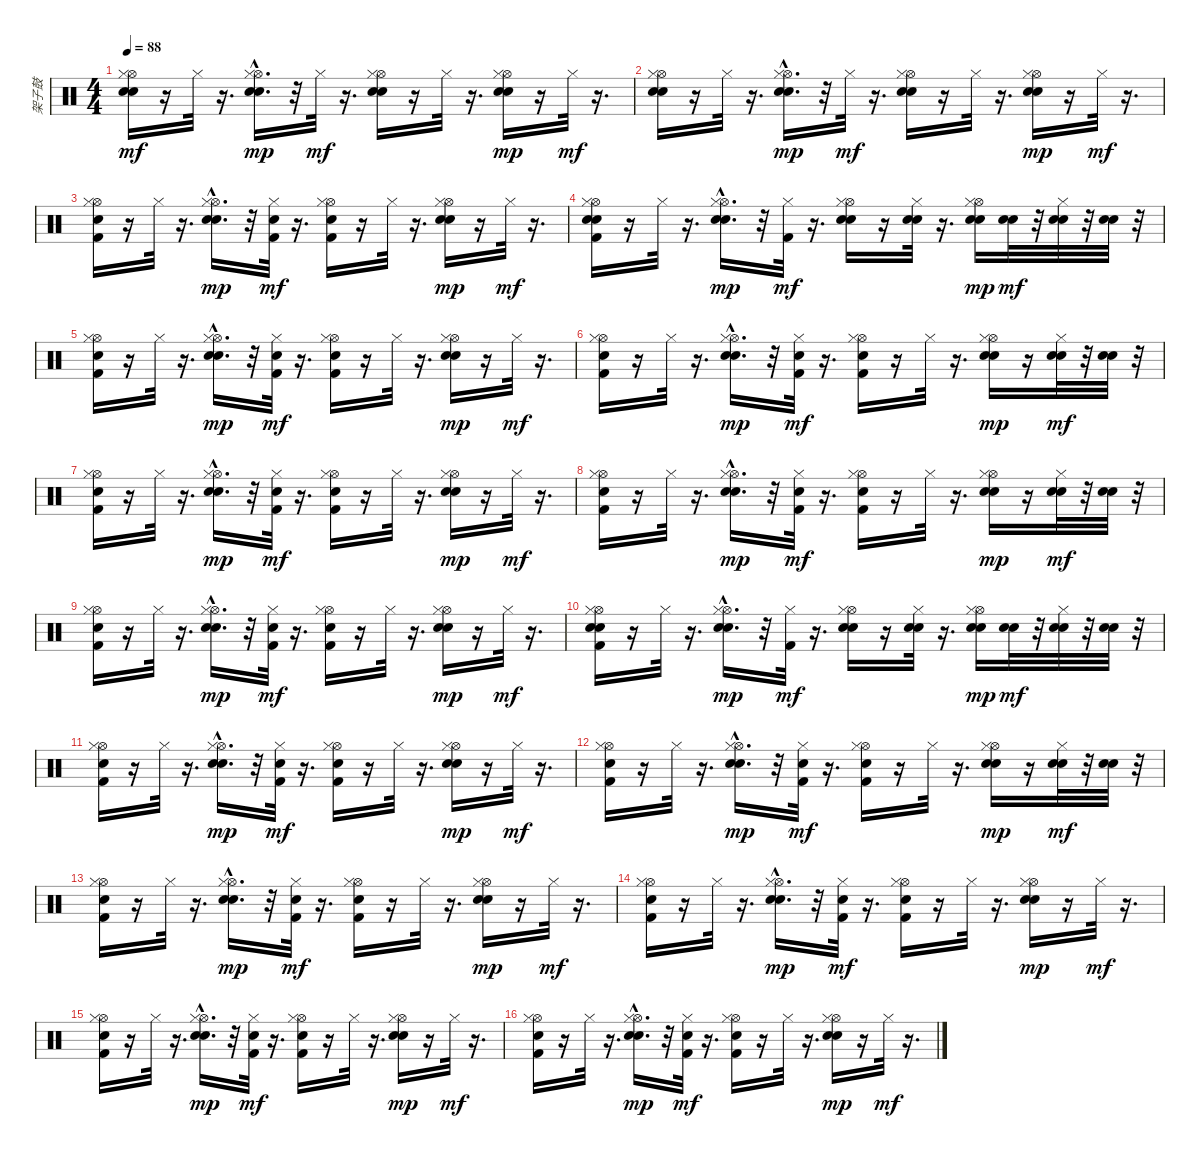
\track ("架子鼓" "架子鼓") {instrument percussion}
\staff {score}
\articulation defaults
\ts (4 4)
\tempo 88
\clef neutral
\ks c
("Hi-Hat (open)" "Hi-Hat (closed)" "Electric Snare (hit)" "Electric Snare (hit)").16{dy mf} r.16 "Hi-Hat (closed)".32 r.16{d} ("Hi-Hat (open)"{hac} "Hi-Hat (closed)" "Electric Snare (hit)" "Metronome (bell)").16{d dy mp} r.32 "Hi-Hat (closed)".32{dy mf} r.16{d} ("Hi-Hat (open)" "Hi-Hat (closed)" "Electric Snare (hit)" "Electric Snare (hit)").16 r.16 "Hi-Hat (closed)".32 r.16{d} ("Hi-Hat (open)" "Hi-Hat (closed)" "Electric Snare (hit)" "Metronome (bell)").16{dy mp} r.16 "Hi-Hat (closed)".32{dy mf} r.16{d} |
("Hi-Hat (open)" "Hi-Hat (closed)" "Electric Snare (hit)" "Electric Snare (hit)").16 r.16 "Hi-Hat (closed)".32 r.16{d} ("Hi-Hat (open)"{hac} "Hi-Hat (closed)" "Electric Snare (hit)" "Metronome (bell)").16{d dy mp} r.32 "Hi-Hat (closed)".32{dy mf} r.16{d} ("Hi-Hat (open)" "Hi-Hat (closed)" "Electric Snare (hit)" "Electric Snare (hit)").16 r.16 "Hi-Hat (closed)".32 r.16{d} ("Hi-Hat (open)" "Hi-Hat (closed)" "Electric Snare (hit)" "Metronome (bell)").16{dy mp} r.16 "Hi-Hat (closed)".32{dy mf} r.16{d} |
("Hi-Hat (open)" "Hi-Hat (closed)" "Kick (hit) 2" "Snare (hit)").16 r.16 "Hi-Hat (closed)".32 r.16{d} ("Hi-Hat (open)"{hac} "Hi-Hat (closed)" "Electric Snare (hit)" "Metronome (bell)").16{d dy mp} r.32 ("Hi-Hat (closed)" "Kick (hit) 2" "Snare (hit)").32{dy mf} r.16{d} ("Hi-Hat (open)" "Hi-Hat (closed)" "Kick (hit) 2" "Snare (hit)").16 r.16 "Hi-Hat (closed)".32 r.16{d} ("Hi-Hat (open)" "Hi-Hat (closed)" "Electric Snare (hit)" "Metronome (bell)").16{dy mp} r.16 "Hi-Hat (closed)".32{dy mf} r.16{d} |
("Hi-Hat (open)" "Hi-Hat (closed)" "Electric Snare (hit)" "Electric Snare (hit)" "Kick (hit) 2").16 r.16 "Hi-Hat (closed)".32 r.16{d} ("Hi-Hat (open)"{hac} "Hi-Hat (closed)" "Electric Snare (hit)" "Metronome (bell)").16{d dy mp} r.32 ("Hi-Hat (closed)" "Kick (hit) 2").32{dy mf} r.16{d} ("Hi-Hat (open)" "Hi-Hat (closed)" "Electric Snare (hit)" "Metronome (bell)").16 r.16 ("Hi-Hat (closed)" "Electric Snare (hit)" "Metronome (bell)").32 r.16{d} ("Hi-Hat (open)" "Hi-Hat (closed)" "Electric Snare (hit)" "Metronome (bell)").16{dy mp} ("Electric Snare (hit)" "Metronome (bell)").32{dy mf} r.32 ("Hi-Hat (closed)" "Electric Snare (hit)" "Metronome (bell)").32 r.32 ("Electric Snare (hit)" "Metronome (bell)").32 r.32 |
("Hi-Hat (open)" "Hi-Hat (closed)" "Kick (hit) 2" "Snare (hit)").16 r.16 "Hi-Hat (closed)".32 r.16{d} ("Hi-Hat (open)"{hac} "Hi-Hat (closed)" "Electric Snare (hit)" "Metronome (bell)").16{d dy mp} r.32 ("Hi-Hat (closed)" "Kick (hit) 2" "Snare (hit)").32{dy mf} r.16{d} ("Hi-Hat (open)" "Hi-Hat (closed)" "Kick (hit) 2" "Snare (hit)").16 r.16 "Hi-Hat (closed)".32 r.16{d} ("Hi-Hat (open)" "Hi-Hat (closed)" "Electric Snare (hit)" "Metronome (bell)").16{dy mp} r.16 "Hi-Hat (closed)".32{dy mf} r.16{d} |
("Hi-Hat (open)" "Hi-Hat (closed)" "Kick (hit) 2" "Snare (hit)").16 r.16 "Hi-Hat (closed)".32 r.16{d} ("Hi-Hat (open)"{hac} "Hi-Hat (closed)" "Electric Snare (hit)" "Metronome (bell)").16{d dy mp} r.32 ("Hi-Hat (closed)" "Kick (hit) 2" "Snare (hit)").32{dy mf} r.16{d} ("Hi-Hat (open)" "Hi-Hat (closed)" "Kick (hit) 2" "Snare (hit)").16 r.16 "Hi-Hat (closed)".32 r.16{d} ("Hi-Hat (open)" "Hi-Hat (closed)" "Electric Snare (hit)" "Metronome (bell)").16{dy mp} r.16 ("Hi-Hat (closed)" "Electric Snare (hit)" "Metronome (bell)").32{dy mf} r.32 ("Electric Snare (hit)" "Metronome (bell)").32 r.32 |
("Hi-Hat (open)" "Hi-Hat (closed)" "Kick (hit) 2" "Snare (hit)").16 r.16 "Hi-Hat (closed)".32 r.16{d} ("Hi-Hat (open)"{hac} "Hi-Hat (closed)" "Electric Snare (hit)" "Metronome (bell)").16{d dy mp} r.32 ("Hi-Hat (closed)" "Kick (hit) 2" "Snare (hit)").32{dy mf} r.16{d} ("Hi-Hat (open)" "Hi-Hat (closed)" "Kick (hit) 2" "Snare (hit)").16 r.16 "Hi-Hat (closed)".32 r.16{d} ("Hi-Hat (open)" "Hi-Hat (closed)" "Electric Snare (hit)" "Metronome (bell)").16{dy mp} r.16 "Hi-Hat (closed)".32{dy mf} r.16{d} |
("Hi-Hat (open)" "Hi-Hat (closed)" "Kick (hit) 2" "Snare (hit)").16 r.16 "Hi-Hat (closed)".32 r.16{d} ("Hi-Hat (open)"{hac} "Hi-Hat (closed)" "Electric Snare (hit)" "Metronome (bell)").16{d dy mp} r.32 ("Hi-Hat (closed)" "Kick (hit) 2" "Snare (hit)").32{dy mf} r.16{d} ("Hi-Hat (open)" "Hi-Hat (closed)" "Kick (hit) 2" "Snare (hit)").16 r.16 "Hi-Hat (closed)".32 r.16{d} ("Hi-Hat (open)" "Hi-Hat (closed)" "Electric Snare (hit)" "Metronome (bell)").16{dy mp} r.16 ("Hi-Hat (closed)" "Electric Snare (hit)" "Metronome (bell)").32{dy mf} r.32 ("Electric Snare (hit)" "Metronome (bell)").32 r.32 |
("Hi-Hat (open)" "Hi-Hat (closed)" "Kick (hit) 2" "Snare (hit)").16 r.16 "Hi-Hat (closed)".32 r.16{d} ("Hi-Hat (open)"{hac} "Hi-Hat (closed)" "Electric Snare (hit)" "Metronome (bell)").16{d dy mp} r.32 ("Hi-Hat (closed)" "Kick (hit) 2" "Snare (hit)").32{dy mf} r.16{d} ("Hi-Hat (open)" "Hi-Hat (closed)" "Kick (hit) 2" "Snare (hit)").16 r.16 "Hi-Hat (closed)".32 r.16{d} ("Hi-Hat (open)" "Hi-Hat (closed)" "Electric Snare (hit)" "Metronome (bell)").16{dy mp} r.16 "Hi-Hat (closed)".32{dy mf} r.16{d} |
("Hi-Hat (open)" "Hi-Hat (closed)" "Electric Snare (hit)" "Electric Snare (hit)" "Kick (hit) 2").16 r.16 "Hi-Hat (closed)".32 r.16{d} ("Hi-Hat (open)"{hac} "Hi-Hat (closed)" "Electric Snare (hit)" "Metronome (bell)").16{d dy mp} r.32 ("Hi-Hat (closed)" "Kick (hit) 2").32{dy mf} r.16{d} ("Hi-Hat (open)" "Hi-Hat (closed)" "Electric Snare (hit)" "Metronome (bell)").16 r.16 ("Hi-Hat (closed)" "Electric Snare (hit)" "Metronome (bell)").32 r.16{d} ("Hi-Hat (open)" "Hi-Hat (closed)" "Electric Snare (hit)" "Metronome (bell)").16{dy mp} ("Electric Snare (hit)" "Metronome (bell)").32{dy mf} r.32 ("Hi-Hat (closed)" "Electric Snare (hit)" "Metronome (bell)").32 r.32 ("Electric Snare (hit)" "Metronome (bell)").32 r.32 |
("Hi-Hat (open)" "Hi-Hat (closed)" "Kick (hit) 2" "Snare (hit)").16 r.16 "Hi-Hat (closed)".32 r.16{d} ("Hi-Hat (open)"{hac} "Hi-Hat (closed)" "Electric Snare (hit)" "Metronome (bell)").16{d dy mp} r.32 ("Hi-Hat (closed)" "Kick (hit) 2" "Snare (hit)").32{dy mf} r.16{d} ("Hi-Hat (open)" "Hi-Hat (closed)" "Kick (hit) 2" "Snare (hit)").16 r.16 "Hi-Hat (closed)".32 r.16{d} ("Hi-Hat (open)" "Hi-Hat (closed)" "Electric Snare (hit)" "Metronome (bell)").16{dy mp} r.16 "Hi-Hat (closed)".32{dy mf} r.16{d} |
("Hi-Hat (open)" "Hi-Hat (closed)" "Kick (hit) 2" "Snare (hit)").16 r.16 "Hi-Hat (closed)".32 r.16{d} ("Hi-Hat (open)"{hac} "Hi-Hat (closed)" "Electric Snare (hit)" "Metronome (bell)").16{d dy mp} r.32 ("Hi-Hat (closed)" "Kick (hit) 2" "Snare (hit)").32{dy mf} r.16{d} ("Hi-Hat (open)" "Hi-Hat (closed)" "Kick (hit) 2" "Snare (hit)").16 r.16 "Hi-Hat (closed)".32 r.16{d} ("Hi-Hat (open)" "Hi-Hat (closed)" "Electric Snare (hit)" "Metronome (bell)").16{dy mp} r.16 ("Hi-Hat (closed)" "Electric Snare (hit)" "Metronome (bell)").32{dy mf} r.32 ("Electric Snare (hit)" "Metronome (bell)").32 r.32 |
("Hi-Hat (open)" "Hi-Hat (closed)" "Kick (hit) 2" "Snare (hit)").16 r.16 "Hi-Hat (closed)".32 r.16{d} ("Hi-Hat (open)"{hac} "Hi-Hat (closed)" "Electric Snare (hit)" "Metronome (bell)").16{d dy mp} r.32 ("Hi-Hat (closed)" "Kick (hit) 2" "Snare (hit)").32{dy mf} r.16{d} ("Hi-Hat (open)" "Hi-Hat (closed)" "Kick (hit) 2" "Snare (hit)").16 r.16 "Hi-Hat (closed)".32 r.16{d} ("Hi-Hat (open)" "Hi-Hat (closed)" "Electric Snare (hit)" "Metronome (bell)").16{dy mp} r.16 "Hi-Hat (closed)".32{dy mf} r.16{d} |
("Hi-Hat (open)" "Hi-Hat (closed)" "Kick (hit) 2" "Snare (hit)").16 r.16 "Hi-Hat (closed)".32 r.16{d} ("Hi-Hat (open)"{hac} "Hi-Hat (closed)" "Electric Snare (hit)" "Metronome (bell)").16{d dy mp} r.32 ("Hi-Hat (closed)" "Kick (hit) 2" "Snare (hit)").32{dy mf} r.16{d} ("Hi-Hat (open)" "Hi-Hat (closed)" "Kick (hit) 2" "Snare (hit)").16 r.16 "Hi-Hat (closed)".32 r.16{d} ("Hi-Hat (open)" "Hi-Hat (closed)" "Electric Snare (hit)" "Metronome (bell)").16{dy mp} r.16 "Hi-Hat (closed)".32{dy mf} r.16{d} |
("Hi-Hat (open)" "Hi-Hat (closed)" "Kick (hit) 2" "Snare (hit)").16 r.16 "Hi-Hat (closed)".32 r.16{d} ("Hi-Hat (open)"{hac} "Hi-Hat (closed)" "Electric Snare (hit)" "Metronome (bell)").16{d dy mp} r.32 ("Hi-Hat (closed)" "Kick (hit) 2" "Snare (hit)").32{dy mf} r.16{d} ("Hi-Hat (open)" "Hi-Hat (closed)" "Kick (hit) 2" "Snare (hit)").16 r.16 "Hi-Hat (closed)".32 r.16{d} ("Hi-Hat (open)" "Hi-Hat (closed)" "Electric Snare (hit)" "Metronome (bell)").16{dy mp} r.16 "Hi-Hat (closed)".32{dy mf} r.16{d} |
("Hi-Hat (open)" "Hi-Hat (closed)" "Kick (hit) 2" "Snare (hit)").16 r.16 "Hi-Hat (closed)".32 r.16{d} ("Hi-Hat (open)"{hac} "Hi-Hat (closed)" "Electric Snare (hit)" "Metronome (bell)").16{d dy mp} r.32 ("Hi-Hat (closed)" "Kick (hit) 2" "Snare (hit)").32{dy mf} r.16{d} ("Hi-Hat (open)" "Hi-Hat (closed)" "Kick (hit) 2" "Snare (hit)").16 r.16 "Hi-Hat (closed)".32 r.16{d} ("Hi-Hat (open)" "Hi-Hat (closed)" "Electric Snare (hit)" "Metronome (bell)").16{dy mp} r.16 "Hi-Hat (closed)".32{dy mf} r.16{d}
